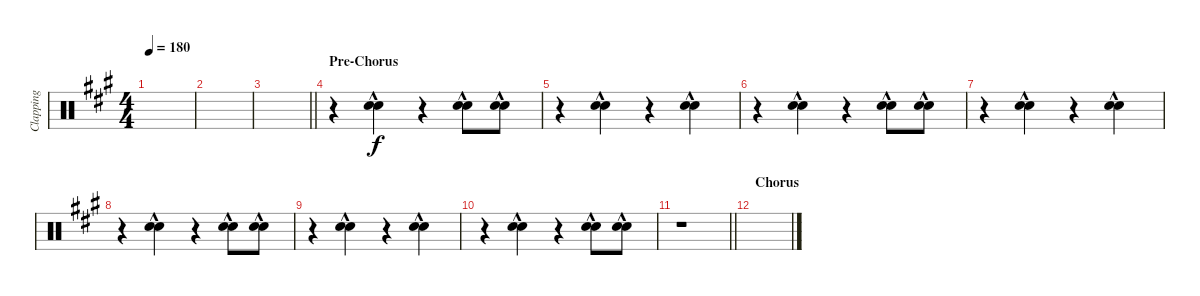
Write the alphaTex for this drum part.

\track ("Clapping" "Clapping") {instrument percussion}
\staff {score}
\articulation defaults
\ts (4 4)
\tempo 180
\clef neutral
\ks f#minor
|
|
\barLineRight lightlight
|
\section ("" "Pre-Chorus")
r.4 ("Hand Clap (hit)"{hac} "Hand Clap (hit)"{hac}).4 r.4 ("Hand Clap (hit)"{hac} "Hand Clap (hit)"{hac}).8 ("Hand Clap (hit)"{hac} "Hand Clap (hit)"{hac}).8 |
r.4 ("Hand Clap (hit)"{hac} "Hand Clap (hit)"{hac}).4 r.4 ("Hand Clap (hit)"{hac} "Hand Clap (hit)"{hac}).4 |
r.4 ("Hand Clap (hit)"{hac} "Hand Clap (hit)"{hac}).4 r.4 ("Hand Clap (hit)"{hac} "Hand Clap (hit)"{hac}).8 ("Hand Clap (hit)"{hac} "Hand Clap (hit)"{hac}).8 |
r.4 ("Hand Clap (hit)"{hac} "Hand Clap (hit)"{hac}).4 r.4 ("Hand Clap (hit)"{hac} "Hand Clap (hit)"{hac}).4 |
r.4 ("Hand Clap (hit)"{hac} "Hand Clap (hit)"{hac}).4 r.4 ("Hand Clap (hit)"{hac} "Hand Clap (hit)"{hac}).8 ("Hand Clap (hit)"{hac} "Hand Clap (hit)"{hac}).8 |
r.4 ("Hand Clap (hit)"{hac} "Hand Clap (hit)"{hac}).4 r.4 ("Hand Clap (hit)"{hac} "Hand Clap (hit)"{hac}).4 |
r.4 ("Hand Clap (hit)"{hac} "Hand Clap (hit)"{hac}).4 r.4 ("Hand Clap (hit)"{hac} "Hand Clap (hit)"{hac}).8 ("Hand Clap (hit)"{hac} "Hand Clap (hit)"{hac}).8 |
\barLineRight lightlight
r.1 |
\section ("" "Chorus")
